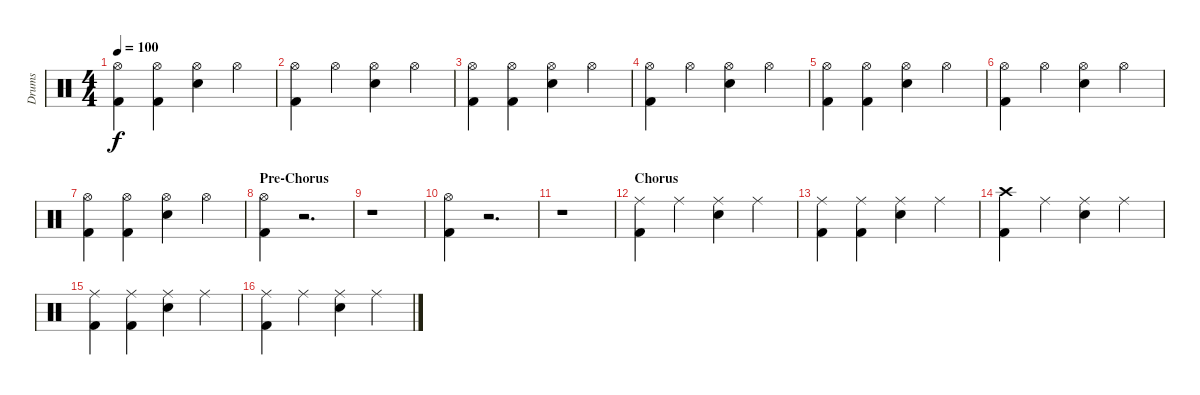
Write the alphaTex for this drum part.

\track ("Drums" "Drums") {instrument percussion}
\staff {score}
\articulation defaults
\ts (4 4)
\tempo 100
\clef neutral
\ks c
("Hi-Hat (open)" "Kick (hit) 2").4{dy f} ("Hi-Hat (open)" "Kick (hit) 2").4 ("Hi-Hat (open)" "Snare (hit) 2").4 "Hi-Hat (open)".4 |
("Hi-Hat (open)" "Kick (hit) 2").4 "Hi-Hat (open)".4 ("Hi-Hat (open)" "Snare (hit) 2").4 "Hi-Hat (open)".4 |
("Hi-Hat (open)" "Kick (hit) 2").4 ("Hi-Hat (open)" "Kick (hit) 2").4 ("Hi-Hat (open)" "Snare (hit) 2").4 "Hi-Hat (open)".4 |
("Hi-Hat (open)" "Kick (hit) 2").4 "Hi-Hat (open)".4 ("Hi-Hat (open)" "Snare (hit) 2").4 "Hi-Hat (open)".4 |
("Hi-Hat (open)" "Kick (hit) 2").4 ("Hi-Hat (open)" "Kick (hit) 2").4 ("Hi-Hat (open)" "Snare (hit) 2").4 "Hi-Hat (open)".4 |
("Hi-Hat (open)" "Kick (hit) 2").4 "Hi-Hat (open)".4 ("Hi-Hat (open)" "Snare (hit) 2").4 "Hi-Hat (open)".4 |
("Hi-Hat (open)" "Kick (hit) 2").4 ("Hi-Hat (open)" "Kick (hit) 2").4 ("Hi-Hat (open)" "Snare (hit) 2").4 "Hi-Hat (open)".4 |
\section ("" "Pre-Chorus")
("Hi-Hat (open)" "Kick (hit) 2").4 r.2{d} |
r.1 |
("Hi-Hat (open)" "Kick (hit) 2").4 r.2{d} |
r.1 |
\section ("" "Chorus")
("Ride (middle)" "Kick (hit) 2").4 "Ride (middle)".4 ("Ride (middle)" "Snare (hit) 2").4 "Ride (middle)".4 |
("Ride (middle)" "Kick (hit) 2").4 ("Ride (middle)" "Kick (hit) 2").4 ("Ride (middle)" "Snare (hit) 2").4 "Ride (middle)".4 |
("Crash high (hit)" "Kick (hit) 2").4 "Ride (middle)".4 ("Ride (middle)" "Snare (hit) 2").4 "Ride (middle)".4 |
("Ride (middle)" "Kick (hit) 2").4 ("Ride (middle)" "Kick (hit) 2").4 ("Ride (middle)" "Snare (hit) 2").4 "Ride (middle)".4 |
("Ride (middle)" "Kick (hit) 2").4 "Ride (middle)".4 ("Ride (middle)" "Snare (hit) 2").4 "Ride (middle)".4
